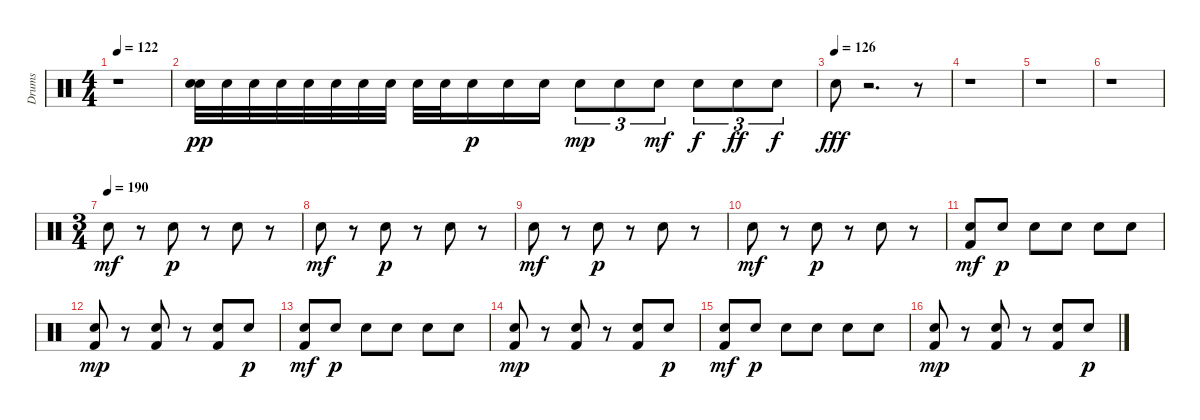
\track ("Drums" "Drums") {instrument percussion}
\staff {score}
\articulation defaults
\ts (4 4)
\tempo 122
\clef neutral
\ks c
r.1{dy mf} |
("Electric Snare (hit)" "Electric Snare (hit)").32{dy pp} "Electric Snare (hit)".32 "Electric Snare (hit)".32 "Electric Snare (hit)".32 "Electric Snare (hit)".32 "Electric Snare (hit)".32 "Electric Snare (hit)".32 "Electric Snare (hit)".32 "Electric Snare (hit)".32 "Electric Snare (hit)".32 "Electric Snare (hit)".16{dy p} "Electric Snare (hit)".16 "Electric Snare (hit)".16 "Electric Snare (hit)".8{tu (3 2) dy mp} "Electric Snare (hit)".8{tu (3 2)} "Electric Snare (hit)".8{tu (3 2) dy mf} "Electric Snare (hit)".8{tu (3 2) dy f} "Electric Snare (hit)".8{tu (3 2) dy ff} "Electric Snare (hit)".8{tu (3 2) dy f} |
\tempo (126)
"Electric Snare (hit)".8{dy fff} r.2{d} r.8 |
r.1 |
r.1 |
r.1 |
\ts (3 4)
\tempo (190)
"Electric Snare (hit)".8{dy mf} r.8 "Electric Snare (hit)".8{dy p} r.8 "Electric Snare (hit)".8 r.8 |
"Electric Snare (hit)".8{dy mf} r.8 "Electric Snare (hit)".8{dy p} r.8 "Electric Snare (hit)".8 r.8 |
"Electric Snare (hit)".8{dy mf} r.8 "Electric Snare (hit)".8{dy p} r.8 "Electric Snare (hit)".8 r.8 |
"Electric Snare (hit)".8{dy mf} r.8 "Electric Snare (hit)".8{dy p} r.8 "Electric Snare (hit)".8 r.8 |
("Kick (hit) 2" "Electric Snare (hit)").8{dy mf} "Electric Snare (hit)".8{dy p} "Electric Snare (hit)".8 "Electric Snare (hit)".8 "Electric Snare (hit)".8 "Electric Snare (hit)".8 |
("Kick (hit) 2" "Electric Snare (hit)").8{dy mp} r.8 ("Kick (hit) 2" "Electric Snare (hit)").8 r.8 ("Kick (hit) 2" "Electric Snare (hit)").8 "Electric Snare (hit)".8{dy p} |
("Kick (hit) 2" "Electric Snare (hit)").8{dy mf} "Electric Snare (hit)".8{dy p} "Electric Snare (hit)".8 "Electric Snare (hit)".8 "Electric Snare (hit)".8 "Electric Snare (hit)".8 |
("Kick (hit) 2" "Electric Snare (hit)").8{dy mp} r.8 ("Kick (hit) 2" "Electric Snare (hit)").8 r.8 ("Kick (hit) 2" "Electric Snare (hit)").8 "Electric Snare (hit)".8{dy p} |
("Kick (hit) 2" "Electric Snare (hit)").8{dy mf} "Electric Snare (hit)".8{dy p} "Electric Snare (hit)".8 "Electric Snare (hit)".8 "Electric Snare (hit)".8 "Electric Snare (hit)".8 |
("Kick (hit) 2" "Electric Snare (hit)").8{dy mp} r.8 ("Kick (hit) 2" "Electric Snare (hit)").8 r.8 ("Kick (hit) 2" "Electric Snare (hit)").8 "Electric Snare (hit)".8{dy p}
